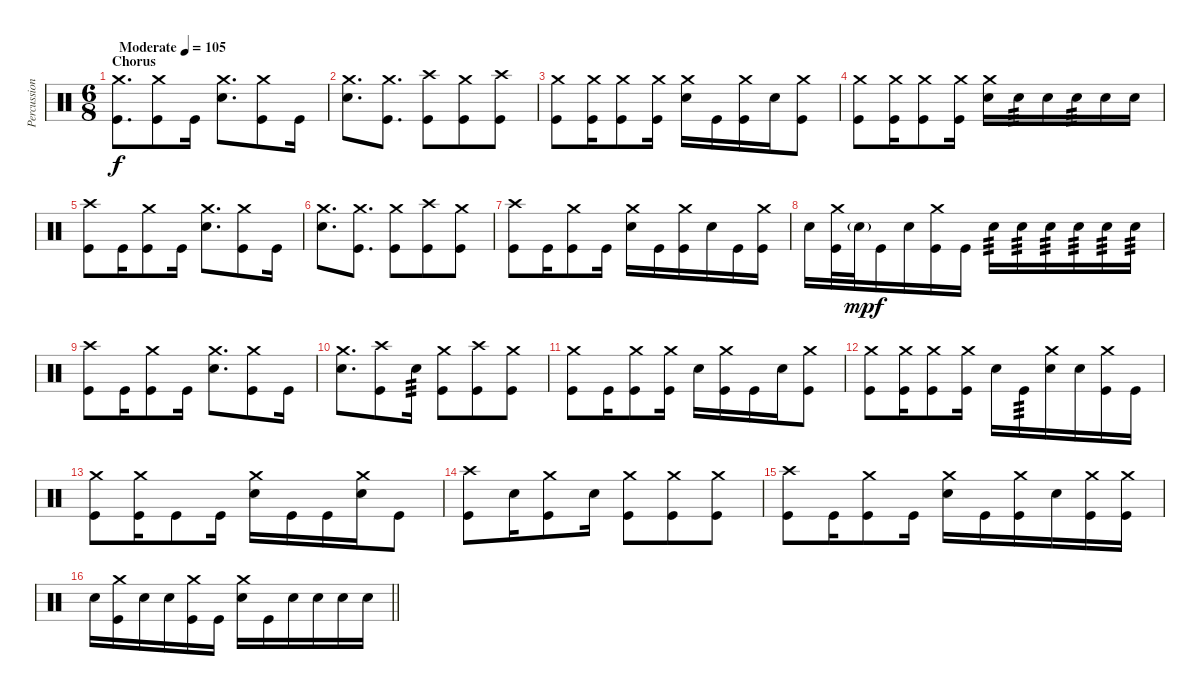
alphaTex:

\track ("Percussion" "Percussion") {instrument percussion}
\staff {score}
\articulation defaults
\ts (6 8)
\section ("" "Chorus")
\tempo (105 "Moderate")
\clef neutral
\ks c
("Crash medium (hit)" "Kick (hit)").8{d dy f} ("Crash medium (hit)" "Kick (hit)").8 "Kick (hit)".16 ("Crash medium (hit)" "Snare (hit) 2").8{d} ("Crash medium (hit)" "Kick (hit)").8 "Kick (hit)".16 |
("Crash medium (hit)" "Snare (hit) 2").8{d} ("Crash medium (hit)" "Kick (hit)").8{d} ("Crash high (hit)" "Kick (hit)").8 ("Crash medium (hit)" "Kick (hit)").8 ("Crash high (hit)" "Kick (hit)").8 |
("Crash medium (hit)" "Kick (hit)").8 ("Crash medium (hit)" "Kick (hit)").16 ("Crash medium (hit)" "Kick (hit)").8 ("Crash medium (hit)" "Kick (hit)").16 ("Crash medium (hit)" "Snare (hit) 2").16 "Kick (hit)".16 ("Crash medium (hit)" "Kick (hit)").16 "Snare (hit) 2".16 ("Crash medium (hit)" "Kick (hit)").8 |
("Crash medium (hit)" "Kick (hit)").8 ("Crash medium (hit)" "Kick (hit)").16 ("Crash medium (hit)" "Kick (hit)").8 ("Crash medium (hit)" "Kick (hit)").16 ("Crash medium (hit)" "Snare (hit) 2").16 "Snare (hit) 2".16{tp 3} "Snare (hit) 2".16 "Snare (hit) 2".16{tp 3} "Snare (hit) 2".16 "Snare (hit) 2".16 |
("Crash high (hit)" "Kick (hit)").8 "Kick (hit)".16 ("Crash medium (hit)" "Kick (hit)").8 "Kick (hit)".16 ("Crash medium (hit)" "Snare (hit) 2").8{d} ("Crash medium (hit)" "Kick (hit)").8 "Kick (hit)".16 |
("Crash medium (hit)" "Snare (hit) 2").8{d} ("Crash medium (hit)" "Kick (hit)").8{d} ("Crash medium (hit)" "Kick (hit)").8 ("Crash high (hit)" "Kick (hit)").8 ("Crash medium (hit)" "Kick (hit)").8 |
("Crash high (hit)" "Kick (hit)").8 "Kick (hit)".16 ("Crash medium (hit)" "Kick (hit)").8 "Kick (hit)".16 ("Crash medium (hit)" "Snare (hit) 2").16 "Kick (hit)".16 ("Crash medium (hit)" "Kick (hit)").16 "Snare (hit) 2".16 "Kick (hit)".16 ("Crash medium (hit)" "Kick (hit)").16 |
"Snare (hit) 2".16 ("Crash medium (hit)" "Kick (hit)").32 "Snare (hit) 2"{g}.32{dy mp} "Kick (hit)".16{dy f} "Snare (hit) 2".16 ("Crash medium (hit)" "Kick (hit)").16 "Kick (hit)".16 "Snare (hit) 2".16{tp 3} "Snare (hit) 2".16{tp 3} "Snare (hit) 2".16{tp 3} "Snare (hit) 2".16{tp 3} "Snare (hit) 2".16{tp 3} "Snare (hit) 2".16{tp 3} |
("Crash high (hit)" "Kick (hit)").8 "Kick (hit)".16 ("Crash medium (hit)" "Kick (hit)").8 "Kick (hit)".16 ("Crash medium (hit)" "Snare (hit) 2").8{d} ("Crash medium (hit)" "Kick (hit)").8 "Kick (hit)".16 |
("Crash medium (hit)" "Snare (hit) 2").8{d} ("Crash high (hit)" "Kick (hit)").8 "Snare (hit) 2".16{tp 3} ("Crash medium (hit)" "Kick (hit)").8 ("Crash high (hit)" "Kick (hit)").8 ("Crash medium (hit)" "Kick (hit)").8 |
("Crash medium (hit)" "Kick (hit)").8 "Kick (hit)".16 ("Crash medium (hit)" "Kick (hit)").8 ("Crash medium (hit)" "Kick (hit)").16 "Snare (hit) 2".16 ("Crash medium (hit)" "Kick (hit)").16 "Kick (hit)".16 "Snare (hit) 2".16 ("Crash medium (hit)" "Kick (hit)").8 |
("Crash medium (hit)" "Kick (hit)").8 ("Crash medium (hit)" "Kick (hit)").16 ("Crash medium (hit)" "Kick (hit)").8 ("Crash medium (hit)" "Kick (hit)").16 "Snare (hit) 2".16 "Kick (hit)".16{tp 3} ("Crash medium (hit)" "Snare (hit) 2").16 "Snare (hit) 2".16 ("Crash medium (hit)" "Kick (hit)").16 "Kick (hit)".16 |
("Crash medium (hit)" "Kick (hit)").8 ("Crash medium (hit)" "Kick (hit)").16 "Kick (hit)".8 "Kick (hit)".16 ("Crash medium (hit)" "Snare (hit) 2").16 "Kick (hit)".16 "Kick (hit)".16 ("Crash medium (hit)" "Snare (hit) 2").16 "Kick (hit)".8 |
("Crash high (hit)" "Kick (hit)").8 "Snare (hit) 2".16 ("Crash medium (hit)" "Kick (hit)").8 "Snare (hit) 2".16 ("Crash medium (hit)" "Kick (hit)").8 ("Crash medium (hit)" "Kick (hit)").8 ("Crash medium (hit)" "Kick (hit)").8 |
("Crash high (hit)" "Kick (hit)").8 "Kick (hit)".16 ("Crash medium (hit)" "Kick (hit)").8 "Kick (hit)".16 ("Crash medium (hit)" "Snare (hit) 2").16 "Kick (hit)".16 ("Crash medium (hit)" "Kick (hit)").16 "Snare (hit) 2".16 ("Crash medium (hit)" "Kick (hit)").16 ("Crash medium (hit)" "Kick (hit)").16 |
\barLineRight lightlight "Snare (hit) 2".16
("Crash medium (hit)" "Kick (hit)").16 "Snare (hit) 2".16 "Snare (hit) 2".16 ("Crash medium (hit)" "Kick (hit)").16 "Kick (hit)".16 ("Crash medium (hit)" "Snare (hit) 2").16 "Kick (hit)".16 "Snare (hit) 2".16 "Snare (hit) 2".16 "Snare (hit) 2".16 "Snare (hit) 2".16
